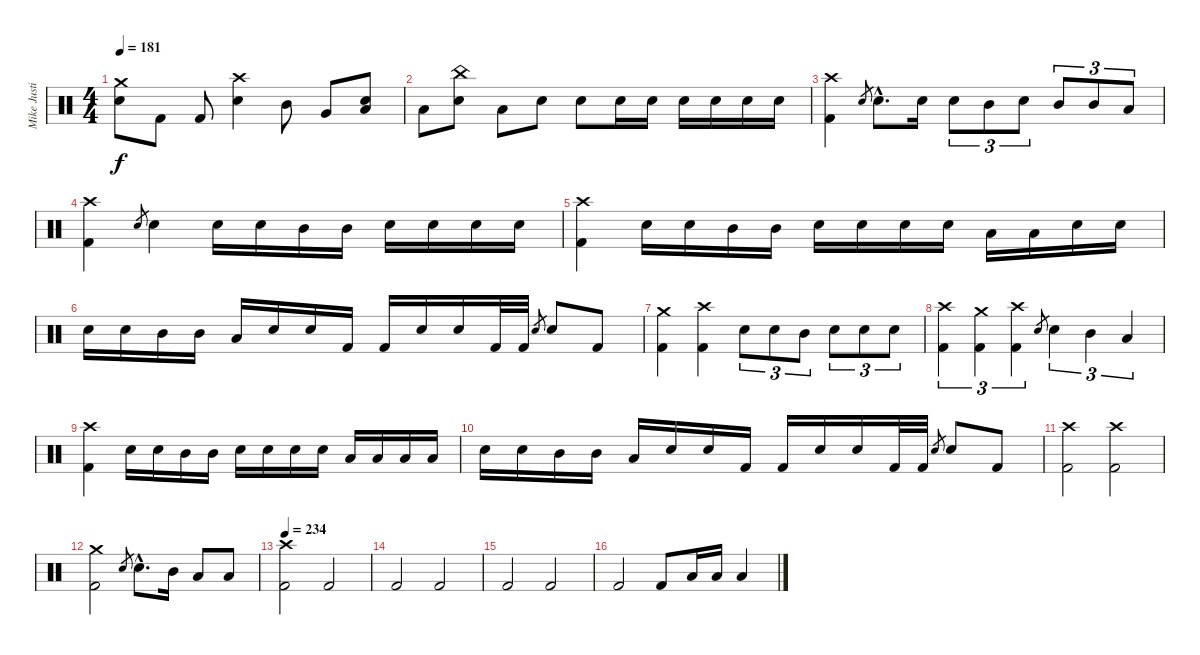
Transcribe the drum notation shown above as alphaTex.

\track ("Mike Justian (Drums)" "Mike Justi") {instrument percussion}
\staff {score}
\articulation defaults
\ts (4 4)
\tempo 181
\clef neutral
\ks c
("Crash medium (hit)" "Snare (hit) 2").8{dy f} "Kick (hit) 2".8 "Kick (hit) 2".8 ("Crash high (hit)" "Snare (hit) 2").4 "Mid Tom (hit)".8 "Very Low Tom (hit)".8 ("Snare (hit) 2" "Low Floor Tom (hit)").8 |
"Low Tom (hit)".8 ("China (hit)" "Snare (hit) 2").8 "Low Tom (hit)".8 "Snare (hit) 2".8 "Snare (hit) 2".8 "Snare (hit) 2".16 "Snare (hit) 2".16 "Snare (hit) 2".16 "Snare (hit) 2".16 "Snare (hit) 2".16 "Snare (hit) 2".16 |
("Crash high (hit)" "Kick (hit) 2").4 "Snare (hit) 2".8{gr} "Snare (hit) 2"{hac}.8{d} "Snare (hit) 2".16 "Snare (hit) 2".8{tu (3 2)} "Mid Tom (hit)".8{tu (3 2)} "Snare (hit) 2".8{tu (3 2)} "Mid Tom (hit)".8{tu (3 2)} "Mid Tom (hit)".8{tu (3 2)} "Low Tom (hit)".8{tu (3 2)} |
("Crash high (hit)" "Kick (hit) 2").4 "Snare (hit) 2".8{gr} "Snare (hit) 2".4 "Snare (hit) 2".16 "Snare (hit) 2".16 "Mid Tom (hit)".16 "Mid Tom (hit)".16 "Snare (hit) 2".16 "Snare (hit) 2".16 "Snare (hit) 2".16 "Snare (hit) 2".16 |
("Crash high (hit)" "Kick (hit) 2").4 "Snare (hit) 2".16 "Snare (hit) 2".16 "Mid Tom (hit)".16 "Mid Tom (hit)".16 "Snare (hit) 2".16 "Snare (hit) 2".16 "Snare (hit) 2".16 "Snare (hit) 2".16 "Low Tom (hit)".16 "Low Tom (hit)".16 "Snare (hit) 2".16 "Snare (hit) 2".16 |
"Snare (hit) 2".16 "Snare (hit) 2".16 "Mid Tom (hit)".16 "Mid Tom (hit)".16 "Low Tom (hit)".16 "Snare (hit) 2".16 "Snare (hit) 2".16 "Kick (hit) 2".16 "Kick (hit) 2".16 "Snare (hit) 2".16 "Snare (hit) 2".16 "Kick (hit) 2".32 "Kick (hit) 2".32 "Snare (hit) 2".8{gr} "Snare (hit) 2".8 "Kick (hit) 2".8 |
("Crash medium (hit)" "Kick (hit) 2").4 ("Crash high (hit)" "Kick (hit) 2").4 "Snare (hit) 2".8{tu (3 2)} "Snare (hit) 2".8{tu (3 2)} "Mid Tom (hit)".8{tu (3 2)} "Snare (hit) 2".8{tu (3 2)} "Snare (hit) 2".8{tu (3 2)} "Snare (hit) 2".8{tu (3 2)} |
("Crash high (hit)" "Kick (hit) 2").4{tu (3 2)} ("Crash medium (hit)" "Kick (hit) 2").4{tu (3 2)} ("Crash high (hit)" "Kick (hit) 2").4{tu (3 2)} "Snare (hit) 2".8{gr} "Snare (hit) 2".4{tu (3 2)} "Mid Tom (hit)".4{tu (3 2)} "Low Tom (hit)".4{tu (3 2)} |
("Crash high (hit)" "Kick (hit) 2").4 "Snare (hit) 2".16 "Snare (hit) 2".16 "Mid Tom (hit)".16 "Mid Tom (hit)".16 "Snare (hit) 2".16 "Snare (hit) 2".16 "Snare (hit) 2".16 "Snare (hit) 2".16 "Low Tom (hit)".16 "Low Tom (hit)".16 "Low Tom (hit)".16 "Low Tom (hit)".16 |
"Snare (hit) 2".16 "Snare (hit) 2".16 "Mid Tom (hit)".16 "Mid Tom (hit)".16 "Low Tom (hit)".16 "Snare (hit) 2".16 "Snare (hit) 2".16 "Kick (hit) 2".16 "Kick (hit) 2".16 "Snare (hit) 2".16 "Snare (hit) 2".16 "Kick (hit) 2".32 "Kick (hit) 2".32 "Snare (hit) 2".8{gr} "Snare (hit) 2".8 "Kick (hit) 2".8 |
("Crash high (hit)" "Kick (hit) 2").2 ("Crash high (hit)" "Kick (hit) 2").2 |
("Crash medium (hit)" "Kick (hit) 2").2 "Snare (hit) 2".8{gr} "Snare (hit) 2"{hac}.8{d} "Mid Tom (hit)".16 "Low Tom (hit)".8 "Low Floor Tom (hit)".8 |
\tempo 234
("Crash high (hit)" "Kick (hit) 2").2 "Kick (hit) 2".2 |
"Kick (hit) 2".2 "Kick (hit) 2".2 |
"Kick (hit) 2".2 "Kick (hit) 2".2 |
"Kick (hit) 2".2 "Kick (hit) 2".8 "Low Tom (hit)".16 "Low Tom (hit)".16 "Low Floor Tom (hit)".4
